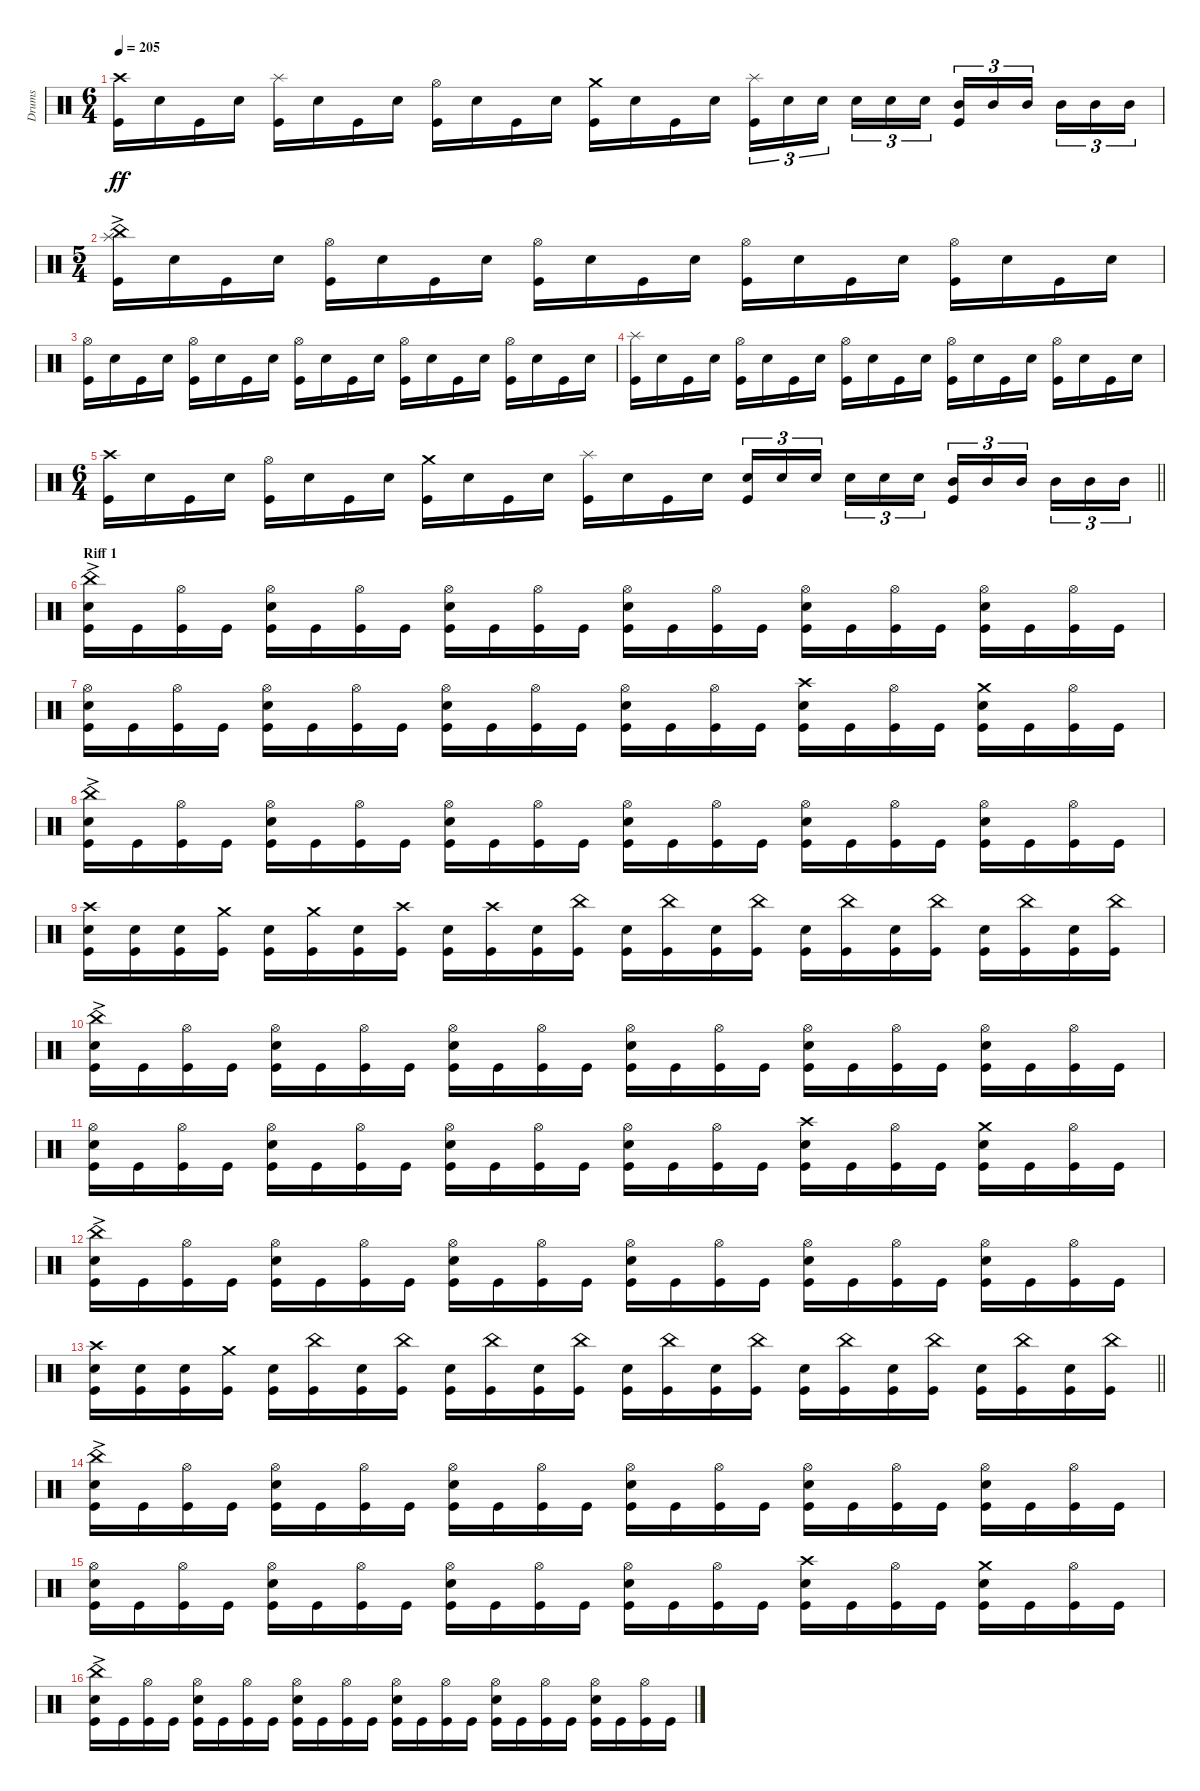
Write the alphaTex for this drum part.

\track ("Drums" "Drums") {instrument percussion}
\staff {score}
\articulation defaults
\ts (6 4)
\tempo 205
\clef neutral
\ks c
("Crash high (hit)" "Kick (hit)").16{dy ff} "Electric Snare (hit)".16 "Kick (hit)".16 "Electric Snare (hit)".16 ("Splash (hit)" "Kick (hit)").16 "Electric Snare (hit)".16 "Kick (hit)".16 "Electric Snare (hit)".16 ("Hi-Hat (open)" "Kick (hit)").16 "Electric Snare (hit)".16 "Kick (hit)".16 "Electric Snare (hit)".16 ("Crash medium (hit)" "Kick (hit)").16 "Electric Snare (hit)".16 "Kick (hit)".16 "Electric Snare (hit)".16{beam splitsecondary} ("Splash (hit)" "Kick (hit)").16{tu (3 2)} "Electric Snare (hit)".16{tu (3 2)} "Electric Snare (hit)".16{tu (3 2) beam splitsecondary} "Electric Snare (hit)".16{tu (3 2)} "Electric Snare (hit)".16{tu (3 2)} "Electric Snare (hit)".16{tu (3 2) beam splitsecondary} ("Mid Tom (hit)" "Kick (hit)").16{tu (3 2)} "Mid Tom (hit)".16{tu (3 2)} "Mid Tom (hit)".16{tu (3 2) beam splitsecondary} "Mid Tom (hit)".16{tu (3 2)} "Mid Tom (hit)".16{tu (3 2)} "Mid Tom (hit)".16{tu (3 2)} |
\ts (5 4)
("China (hit)"{ac} "Splash (hit)" "Kick (hit)").16 "Electric Snare (hit)".16 "Kick (hit)".16 "Electric Snare (hit)".16 ("Hi-Hat (open)" "Kick (hit)").16 "Electric Snare (hit)".16 "Kick (hit)".16 "Electric Snare (hit)".16 ("Hi-Hat (open)" "Kick (hit)").16 "Electric Snare (hit)".16 "Kick (hit)".16 "Electric Snare (hit)".16 ("Hi-Hat (open)" "Kick (hit)").16 "Electric Snare (hit)".16 "Kick (hit)".16 "Electric Snare (hit)".16 ("Hi-Hat (open)" "Kick (hit)").16 "Electric Snare (hit)".16 "Kick (hit)".16 "Electric Snare (hit)".16 |
("Hi-Hat (open)" "Kick (hit)").16 "Electric Snare (hit)".16 "Kick (hit)".16 "Electric Snare (hit)".16 ("Hi-Hat (open)" "Kick (hit)").16 "Electric Snare (hit)".16 "Kick (hit)".16 "Electric Snare (hit)".16 ("Hi-Hat (open)" "Kick (hit)").16 "Electric Snare (hit)".16 "Kick (hit)".16 "Electric Snare (hit)".16 ("Hi-Hat (open)" "Kick (hit)").16 "Electric Snare (hit)".16 "Kick (hit)".16 "Electric Snare (hit)".16 ("Hi-Hat (open)" "Kick (hit)").16 "Electric Snare (hit)".16 "Kick (hit)".16 "Electric Snare (hit)".16 |
("Splash (hit)" "Kick (hit)").16 "Electric Snare (hit)".16 "Kick (hit)".16 "Electric Snare (hit)".16 ("Hi-Hat (open)" "Kick (hit)").16 "Electric Snare (hit)".16 "Kick (hit)".16 "Electric Snare (hit)".16 ("Hi-Hat (open)" "Kick (hit)").16 "Electric Snare (hit)".16 "Kick (hit)".16 "Electric Snare (hit)".16 ("Hi-Hat (open)" "Kick (hit)").16 "Electric Snare (hit)".16 "Kick (hit)".16 "Electric Snare (hit)".16 ("Hi-Hat (open)" "Kick (hit)").16 "Electric Snare (hit)".16 "Kick (hit)".16 "Electric Snare (hit)".16 |
\ts (6 4)
\barLineRight lightlight
("Crash high (hit)" "Kick (hit)").16 "Electric Snare (hit)".16 "Kick (hit)".16 "Electric Snare (hit)".16 ("Hi-Hat (open)" "Kick (hit)").16 "Electric Snare (hit)".16 "Kick (hit)".16 "Electric Snare (hit)".16 ("Crash medium (hit)" "Kick (hit)").16 "Electric Snare (hit)".16 "Kick (hit)".16 "Electric Snare (hit)".16 ("Splash (hit)" "Kick (hit)").16 "Electric Snare (hit)".16 "Kick (hit)".16 "Electric Snare (hit)".16{beam splitsecondary} ("Electric Snare (hit)" "Kick (hit)").16{tu (3 2)} "Electric Snare (hit)".16{tu (3 2)} "Electric Snare (hit)".16{tu (3 2) beam splitsecondary} "Electric Snare (hit)".16{tu (3 2)} "Electric Snare (hit)".16{tu (3 2)} "Electric Snare (hit)".16{tu (3 2) beam splitsecondary} ("Mid Tom (hit)" "Kick (hit)").16{tu (3 2)} "Mid Tom (hit)".16{tu (3 2)} "Mid Tom (hit)".16{tu (3 2) beam splitsecondary} "Mid Tom (hit)".16{tu (3 2)} "Mid Tom (hit)".16{tu (3 2)} "Mid Tom (hit)".16{tu (3 2)} |
\section ("" "Riff 1")
("China (hit)"{ac} "Electric Snare (hit)" "Kick (hit)").16 "Kick (hit)".16 ("Hi-Hat (open)" "Kick (hit)").16 "Kick (hit)".16 ("Hi-Hat (open)" "Electric Snare (hit)" "Kick (hit)").16 "Kick (hit)".16 ("Hi-Hat (open)" "Kick (hit)").16 "Kick (hit)".16 ("Hi-Hat (open)" "Electric Snare (hit)" "Kick (hit)").16 "Kick (hit)".16 ("Hi-Hat (open)" "Kick (hit)").16 "Kick (hit)".16 ("Hi-Hat (open)" "Electric Snare (hit)" "Kick (hit)").16 "Kick (hit)".16 ("Hi-Hat (open)" "Kick (hit)").16 "Kick (hit)".16 ("Hi-Hat (open)" "Electric Snare (hit)" "Kick (hit)").16 "Kick (hit)".16 ("Hi-Hat (open)" "Kick (hit)").16 "Kick (hit)".16 ("Hi-Hat (open)" "Electric Snare (hit)" "Kick (hit)").16 "Kick (hit)".16 ("Hi-Hat (open)" "Kick (hit)").16 "Kick (hit)".16 |
("Hi-Hat (open)" "Electric Snare (hit)" "Kick (hit)").16 "Kick (hit)".16 ("Hi-Hat (open)" "Kick (hit)").16 "Kick (hit)".16 ("Hi-Hat (open)" "Electric Snare (hit)" "Kick (hit)").16 "Kick (hit)".16 ("Hi-Hat (open)" "Kick (hit)").16 "Kick (hit)".16 ("Hi-Hat (open)" "Electric Snare (hit)" "Kick (hit)").16 "Kick (hit)".16 ("Hi-Hat (open)" "Kick (hit)").16 "Kick (hit)".16 ("Hi-Hat (open)" "Electric Snare (hit)" "Kick (hit)").16 "Kick (hit)".16 ("Hi-Hat (open)" "Kick (hit)").16 "Kick (hit)".16 ("Crash high (hit)" "Electric Snare (hit)" "Kick (hit)").16 "Kick (hit)".16 ("Hi-Hat (open)" "Kick (hit)").16 "Kick (hit)".16 ("Crash medium (hit)" "Electric Snare (hit)" "Kick (hit)").16 "Kick (hit)".16 ("Hi-Hat (open)" "Kick (hit)").16 "Kick (hit)".16 |
("China (hit)"{ac} "Electric Snare (hit)" "Kick (hit)").16 "Kick (hit)".16 ("Hi-Hat (open)" "Kick (hit)").16 "Kick (hit)".16 ("Hi-Hat (open)" "Electric Snare (hit)" "Kick (hit)").16 "Kick (hit)".16 ("Hi-Hat (open)" "Kick (hit)").16 "Kick (hit)".16 ("Hi-Hat (open)" "Electric Snare (hit)" "Kick (hit)").16 "Kick (hit)".16 ("Hi-Hat (open)" "Kick (hit)").16 "Kick (hit)".16 ("Hi-Hat (open)" "Electric Snare (hit)" "Kick (hit)").16 "Kick (hit)".16 ("Hi-Hat (open)" "Kick (hit)").16 "Kick (hit)".16 ("Hi-Hat (open)" "Electric Snare (hit)" "Kick (hit)").16 "Kick (hit)".16 ("Hi-Hat (open)" "Kick (hit)").16 "Kick (hit)".16 ("Hi-Hat (open)" "Electric Snare (hit)" "Kick (hit)").16 "Kick (hit)".16 ("Hi-Hat (open)" "Kick (hit)").16 "Kick (hit)".16 |
("Crash high (hit)" "Electric Snare (hit)" "Kick (hit)").16 ("Electric Snare (hit)" "Kick (hit)").16 ("Electric Snare (hit)" "Kick (hit)").16 ("Crash medium (hit)" "Kick (hit)").16 ("Electric Snare (hit)" "Kick (hit)").16 ("Crash medium (hit)" "Kick (hit)").16 ("Electric Snare (hit)" "Kick (hit)").16 ("Crash high (hit)" "Kick (hit)").16 ("Electric Snare (hit)" "Kick (hit)").16 ("Crash high (hit)" "Kick (hit)").16 ("Electric Snare (hit)" "Kick (hit)").16 ("China (hit)" "Kick (hit)").16 ("Electric Snare (hit)" "Kick (hit)").16 ("China (hit)" "Kick (hit)").16 ("Electric Snare (hit)" "Kick (hit)").16 ("China (hit)" "Kick (hit)").16 ("Electric Snare (hit)" "Kick (hit)").16 ("China (hit)" "Kick (hit)").16 ("Electric Snare (hit)" "Kick (hit)").16 ("China (hit)" "Kick (hit)").16 ("Electric Snare (hit)" "Kick (hit)").16 ("China (hit)" "Kick (hit)").16 ("Electric Snare (hit)" "Kick (hit)").16 ("China (hit)" "Kick (hit)").16 |
("China (hit)"{ac} "Electric Snare (hit)" "Kick (hit)").16 "Kick (hit)".16 ("Hi-Hat (open)" "Kick (hit)").16 "Kick (hit)".16 ("Hi-Hat (open)" "Electric Snare (hit)" "Kick (hit)").16 "Kick (hit)".16 ("Hi-Hat (open)" "Kick (hit)").16 "Kick (hit)".16 ("Hi-Hat (open)" "Electric Snare (hit)" "Kick (hit)").16 "Kick (hit)".16 ("Hi-Hat (open)" "Kick (hit)").16 "Kick (hit)".16 ("Hi-Hat (open)" "Electric Snare (hit)" "Kick (hit)").16 "Kick (hit)".16 ("Hi-Hat (open)" "Kick (hit)").16 "Kick (hit)".16 ("Hi-Hat (open)" "Electric Snare (hit)" "Kick (hit)").16 "Kick (hit)".16 ("Hi-Hat (open)" "Kick (hit)").16 "Kick (hit)".16 ("Hi-Hat (open)" "Electric Snare (hit)" "Kick (hit)").16 "Kick (hit)".16 ("Hi-Hat (open)" "Kick (hit)").16 "Kick (hit)".16 |
("Hi-Hat (open)" "Electric Snare (hit)" "Kick (hit)").16 "Kick (hit)".16 ("Hi-Hat (open)" "Kick (hit)").16 "Kick (hit)".16 ("Hi-Hat (open)" "Electric Snare (hit)" "Kick (hit)").16 "Kick (hit)".16 ("Hi-Hat (open)" "Kick (hit)").16 "Kick (hit)".16 ("Hi-Hat (open)" "Electric Snare (hit)" "Kick (hit)").16 "Kick (hit)".16 ("Hi-Hat (open)" "Kick (hit)").16 "Kick (hit)".16 ("Hi-Hat (open)" "Electric Snare (hit)" "Kick (hit)").16 "Kick (hit)".16 ("Hi-Hat (open)" "Kick (hit)").16 "Kick (hit)".16 ("Crash high (hit)" "Electric Snare (hit)" "Kick (hit)").16 "Kick (hit)".16 ("Hi-Hat (open)" "Kick (hit)").16 "Kick (hit)".16 ("Crash medium (hit)" "Electric Snare (hit)" "Kick (hit)").16 "Kick (hit)".16 ("Hi-Hat (open)" "Kick (hit)").16 "Kick (hit)".16 |
("China (hit)"{ac} "Electric Snare (hit)" "Kick (hit)").16 "Kick (hit)".16 ("Hi-Hat (open)" "Kick (hit)").16 "Kick (hit)".16 ("Hi-Hat (open)" "Electric Snare (hit)" "Kick (hit)").16 "Kick (hit)".16 ("Hi-Hat (open)" "Kick (hit)").16 "Kick (hit)".16 ("Hi-Hat (open)" "Electric Snare (hit)" "Kick (hit)").16 "Kick (hit)".16 ("Hi-Hat (open)" "Kick (hit)").16 "Kick (hit)".16 ("Hi-Hat (open)" "Electric Snare (hit)" "Kick (hit)").16 "Kick (hit)".16 ("Hi-Hat (open)" "Kick (hit)").16 "Kick (hit)".16 ("Hi-Hat (open)" "Electric Snare (hit)" "Kick (hit)").16 "Kick (hit)".16 ("Hi-Hat (open)" "Kick (hit)").16 "Kick (hit)".16 ("Hi-Hat (open)" "Electric Snare (hit)" "Kick (hit)").16 "Kick (hit)".16 ("Hi-Hat (open)" "Kick (hit)").16 "Kick (hit)".16 |
\barLineRight lightlight
("Crash high (hit)" "Electric Snare (hit)" "Kick (hit)").16 ("Electric Snare (hit)" "Kick (hit)").16 ("Electric Snare (hit)" "Kick (hit)").16 ("Crash medium (hit)" "Kick (hit)").16 ("Electric Snare (hit)" "Kick (hit)").16 ("China (hit)" "Kick (hit)").16 ("Electric Snare (hit)" "Kick (hit)").16 ("China (hit)" "Kick (hit)").16 ("Electric Snare (hit)" "Kick (hit)").16 ("China (hit)" "Kick (hit)").16 ("Electric Snare (hit)" "Kick (hit)").16 ("China (hit)" "Kick (hit)").16 ("Electric Snare (hit)" "Kick (hit)").16 ("China (hit)" "Kick (hit)").16 ("Electric Snare (hit)" "Kick (hit)").16 ("China (hit)" "Kick (hit)").16 ("Electric Snare (hit)" "Kick (hit)").16 ("China (hit)" "Kick (hit)").16 ("Electric Snare (hit)" "Kick (hit)").16 ("China (hit)" "Kick (hit)").16 ("Electric Snare (hit)" "Kick (hit)").16 ("China (hit)" "Kick (hit)").16 ("Electric Snare (hit)" "Kick (hit)").16 ("China (hit)" "Kick (hit)").16 |
("China (hit)"{ac} "Electric Snare (hit)" "Kick (hit)").16 "Kick (hit)".16 ("Hi-Hat (open)" "Kick (hit)").16 "Kick (hit)".16 ("Hi-Hat (open)" "Electric Snare (hit)" "Kick (hit)").16 "Kick (hit)".16 ("Hi-Hat (open)" "Kick (hit)").16 "Kick (hit)".16 ("Hi-Hat (open)" "Electric Snare (hit)" "Kick (hit)").16 "Kick (hit)".16 ("Hi-Hat (open)" "Kick (hit)").16 "Kick (hit)".16 ("Hi-Hat (open)" "Electric Snare (hit)" "Kick (hit)").16 "Kick (hit)".16 ("Hi-Hat (open)" "Kick (hit)").16 "Kick (hit)".16 ("Hi-Hat (open)" "Electric Snare (hit)" "Kick (hit)").16 "Kick (hit)".16 ("Hi-Hat (open)" "Kick (hit)").16 "Kick (hit)".16 ("Hi-Hat (open)" "Electric Snare (hit)" "Kick (hit)").16 "Kick (hit)".16 ("Hi-Hat (open)" "Kick (hit)").16 "Kick (hit)".16 |
("Hi-Hat (open)" "Electric Snare (hit)" "Kick (hit)").16 "Kick (hit)".16 ("Hi-Hat (open)" "Kick (hit)").16 "Kick (hit)".16 ("Hi-Hat (open)" "Electric Snare (hit)" "Kick (hit)").16 "Kick (hit)".16 ("Hi-Hat (open)" "Kick (hit)").16 "Kick (hit)".16 ("Hi-Hat (open)" "Electric Snare (hit)" "Kick (hit)").16 "Kick (hit)".16 ("Hi-Hat (open)" "Kick (hit)").16 "Kick (hit)".16 ("Hi-Hat (open)" "Electric Snare (hit)" "Kick (hit)").16 "Kick (hit)".16 ("Hi-Hat (open)" "Kick (hit)").16 "Kick (hit)".16 ("Crash high (hit)" "Electric Snare (hit)" "Kick (hit)").16 "Kick (hit)".16 ("Hi-Hat (open)" "Kick (hit)").16 "Kick (hit)".16 ("Crash medium (hit)" "Electric Snare (hit)" "Kick (hit)").16 "Kick (hit)".16 ("Hi-Hat (open)" "Kick (hit)").16 "Kick (hit)".16 |
("China (hit)"{ac} "Electric Snare (hit)" "Kick (hit)").16 "Kick (hit)".16 ("Hi-Hat (open)" "Kick (hit)").16 "Kick (hit)".16 ("Hi-Hat (open)" "Electric Snare (hit)" "Kick (hit)").16 "Kick (hit)".16 ("Hi-Hat (open)" "Kick (hit)").16 "Kick (hit)".16 ("Hi-Hat (open)" "Electric Snare (hit)" "Kick (hit)").16 "Kick (hit)".16 ("Hi-Hat (open)" "Kick (hit)").16 "Kick (hit)".16 ("Hi-Hat (open)" "Electric Snare (hit)" "Kick (hit)").16 "Kick (hit)".16 ("Hi-Hat (open)" "Kick (hit)").16 "Kick (hit)".16 ("Hi-Hat (open)" "Electric Snare (hit)" "Kick (hit)").16 "Kick (hit)".16 ("Hi-Hat (open)" "Kick (hit)").16 "Kick (hit)".16 ("Hi-Hat (open)" "Electric Snare (hit)" "Kick (hit)").16 "Kick (hit)".16 ("Hi-Hat (open)" "Kick (hit)").16 "Kick (hit)".16
